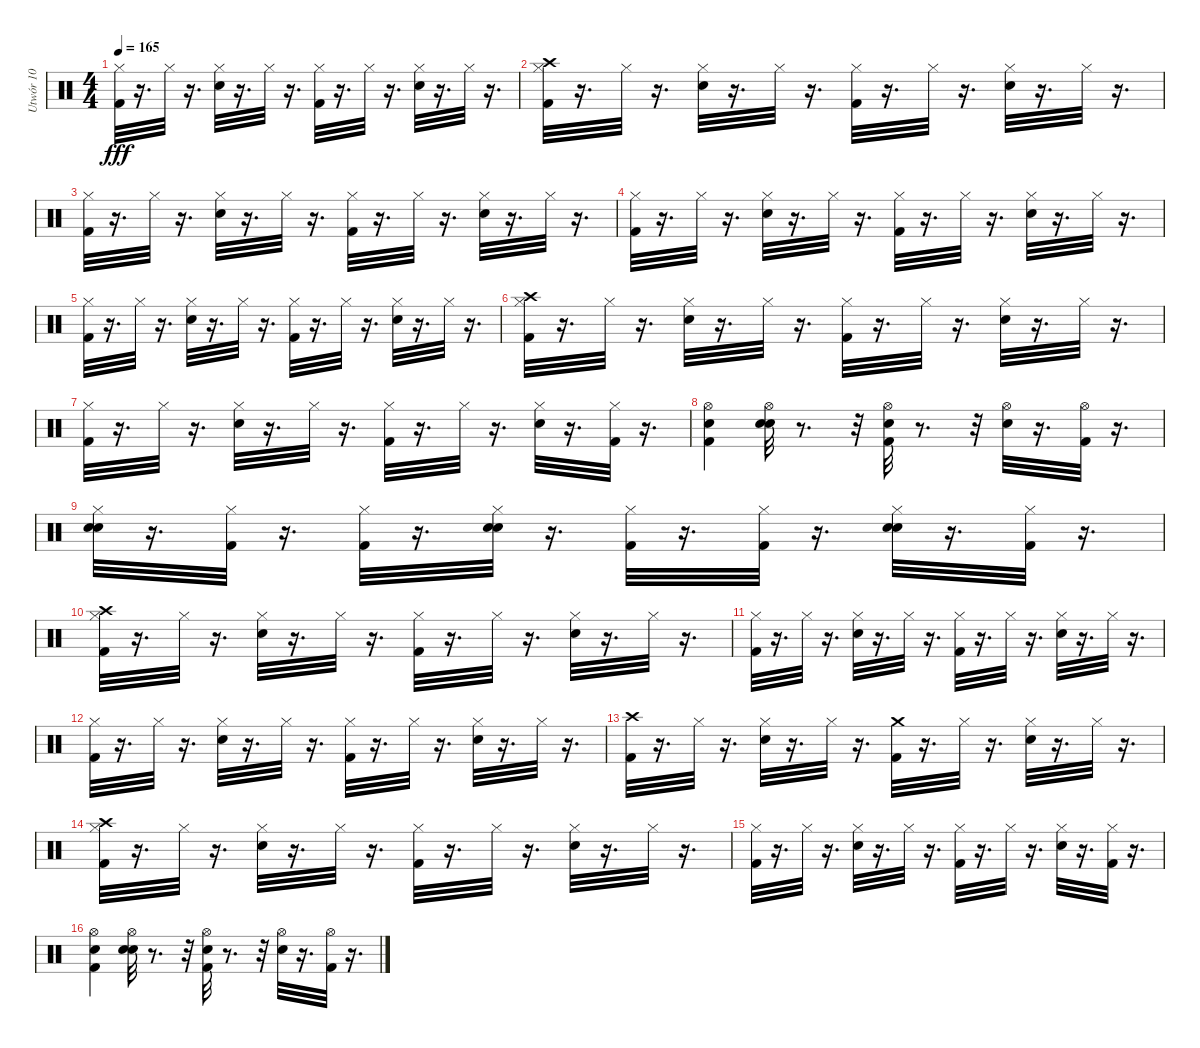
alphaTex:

\track ("Utwór 10" "Utwór 10") {instrument percussion}
\staff {score}
\articulation defaults
\ts (4 4)
\tempo 165
\clef neutral
\ks c
("Hi-Hat (closed)" "Kick (hit) 2").32{dy fff} r.16{d} "Hi-Hat (closed)".32 r.16{d} ("Hi-Hat (closed)" "Electric Snare (hit)").32 r.16{d} "Hi-Hat (closed)".32 r.16{d} ("Hi-Hat (closed)" "Kick (hit) 2").32 r.16{d} "Hi-Hat (closed)".32 r.16{d} ("Hi-Hat (closed)" "Electric Snare (hit)").32 r.16{d} "Hi-Hat (closed)".32 r.16{d} |
("Crash high (hit)" "Hi-Hat (closed)" "Kick (hit) 2").32 r.16{d} "Hi-Hat (closed)".32 r.16{d} ("Hi-Hat (closed)" "Electric Snare (hit)").32 r.16{d} "Hi-Hat (closed)".32 r.16{d} ("Hi-Hat (closed)" "Kick (hit) 2").32 r.16{d} "Hi-Hat (closed)".32 r.16{d} ("Hi-Hat (closed)" "Electric Snare (hit)").32 r.16{d} "Hi-Hat (closed)".32 r.16{d} |
("Hi-Hat (closed)" "Kick (hit) 2").32 r.16{d} "Hi-Hat (closed)".32 r.16{d} ("Hi-Hat (closed)" "Electric Snare (hit)").32 r.16{d} "Hi-Hat (closed)".32 r.16{d} ("Hi-Hat (closed)" "Kick (hit) 2").32 r.16{d} "Hi-Hat (closed)".32 r.16{d} ("Hi-Hat (closed)" "Electric Snare (hit)").32 r.16{d} "Hi-Hat (closed)".32 r.16{d} |
("Hi-Hat (closed)" "Kick (hit) 2").32 r.16{d} "Hi-Hat (closed)".32 r.16{d} ("Hi-Hat (closed)" "Electric Snare (hit)").32 r.16{d} "Hi-Hat (closed)".32 r.16{d} ("Hi-Hat (closed)" "Kick (hit) 2").32 r.16{d} "Hi-Hat (closed)".32 r.16{d} ("Hi-Hat (closed)" "Electric Snare (hit)").32 r.16{d} "Hi-Hat (closed)".32 r.16{d} |
("Hi-Hat (closed)" "Kick (hit) 2").32 r.16{d} "Hi-Hat (closed)".32 r.16{d} ("Hi-Hat (closed)" "Electric Snare (hit)").32 r.16{d} "Hi-Hat (closed)".32 r.16{d} ("Hi-Hat (closed)" "Kick (hit) 2").32 r.16{d} "Hi-Hat (closed)".32 r.16{d} ("Hi-Hat (closed)" "Electric Snare (hit)").32 r.16{d} "Hi-Hat (closed)".32 r.16{d} |
("Crash high (hit)" "Hi-Hat (closed)" "Kick (hit) 2").32 r.16{d} "Hi-Hat (closed)".32 r.16{d} ("Hi-Hat (closed)" "Electric Snare (hit)").32 r.16{d} "Hi-Hat (closed)".32 r.16{d} ("Hi-Hat (closed)" "Kick (hit) 2").32 r.16{d} "Hi-Hat (closed)".32 r.16{d} ("Hi-Hat (closed)" "Electric Snare (hit)").32 r.16{d} "Hi-Hat (closed)".32 r.16{d} |
("Hi-Hat (closed)" "Kick (hit) 2").32 r.16{d} "Hi-Hat (closed)".32 r.16{d} ("Hi-Hat (closed)" "Electric Snare (hit)").32 r.16{d} "Hi-Hat (closed)".32 r.16{d} ("Hi-Hat (closed)" "Kick (hit) 2").32 r.16{d} "Hi-Hat (closed)".32 r.16{d} ("Hi-Hat (closed)" "Electric Snare (hit)").32 r.16{d} ("Kick (hit) 2" "Hi-Hat (closed)").32 r.16{d} |
("Electric Snare (hit)" "Hi-Hat (open)" "Kick (hit) 2").4 ("Electric Snare (hit)" "Hi-Hat (open)" "Electric Snare (hit)").32 r.8{d} r.32 ("Electric Snare (hit)" "Hi-Hat (open)" "Kick (hit) 2").32 r.8{d} r.32 ("Hi-Hat (open)" "Electric Snare (hit)").32 r.16{d} ("Kick (hit) 2" "Hi-Hat (open)").32 r.16{d} |
("Electric Snare (hit)" "Hi-Hat (closed)" "Electric Snare (hit)").32 r.16{d} ("Kick (hit) 2" "Hi-Hat (closed)").32 r.16{d} ("Hi-Hat (closed)" "Kick (hit) 2").32 r.16{d} ("Electric Snare (hit)" "Electric Snare (hit)" "Hi-Hat (closed)").32 r.16{d} ("Hi-Hat (closed)" "Kick (hit) 2").32 r.16{d} ("Hi-Hat (closed)" "Kick (hit) 2").32 r.16{d} ("Electric Snare (hit)" "Hi-Hat (closed)" "Electric Snare (hit)").32 r.16{d} ("Kick (hit) 2" "Hi-Hat (closed)").32 r.16{d} |
("Kick (hit) 2" "Hi-Hat (closed)" "Crash high (hit)").32 r.16{d} "Hi-Hat (closed)".32 r.16{d} ("Hi-Hat (closed)" "Electric Snare (hit)").32 r.16{d} "Hi-Hat (closed)".32 r.16{d} ("Hi-Hat (closed)" "Kick (hit) 2").32 r.16{d} "Hi-Hat (closed)".32 r.16{d} ("Hi-Hat (closed)" "Electric Snare (hit)").32 r.16{d} "Hi-Hat (closed)".32 r.16{d} |
("Hi-Hat (closed)" "Kick (hit) 2").32 r.16{d} "Hi-Hat (closed)".32 r.16{d} ("Hi-Hat (closed)" "Electric Snare (hit)").32 r.16{d} "Hi-Hat (closed)".32 r.16{d} ("Hi-Hat (closed)" "Kick (hit) 2").32 r.16{d} "Hi-Hat (closed)".32 r.16{d} ("Hi-Hat (closed)" "Electric Snare (hit)").32 r.16{d} "Hi-Hat (closed)".32 r.16{d} |
("Hi-Hat (closed)" "Kick (hit) 2").32 r.16{d} "Hi-Hat (closed)".32 r.16{d} ("Hi-Hat (closed)" "Electric Snare (hit)").32 r.16{d} "Hi-Hat (closed)".32 r.16{d} ("Hi-Hat (closed)" "Kick (hit) 2").32 r.16{d} "Hi-Hat (closed)".32 r.16{d} ("Hi-Hat (closed)" "Electric Snare (hit)").32 r.16{d} "Hi-Hat (closed)".32 r.16{d} |
("Crash high (hit)" "Kick (hit) 2").32 r.16{d} "Hi-Hat (closed)".32 r.16{d} ("Hi-Hat (closed)" "Electric Snare (hit)").32 r.16{d} "Hi-Hat (closed)".32 r.16{d} ("Crash medium (hit)" "Kick (hit) 2").32 r.16{d} "Hi-Hat (closed)".32 r.16{d} ("Hi-Hat (closed)" "Electric Snare (hit)").32 r.16{d} "Hi-Hat (closed)".32 r.16{d} |
("Crash high (hit)" "Hi-Hat (closed)" "Kick (hit) 2").32 r.16{d} "Hi-Hat (closed)".32 r.16{d} ("Hi-Hat (closed)" "Electric Snare (hit)").32 r.16{d} "Hi-Hat (closed)".32 r.16{d} ("Hi-Hat (closed)" "Kick (hit) 2").32 r.16{d} "Hi-Hat (closed)".32 r.16{d} ("Hi-Hat (closed)" "Electric Snare (hit)").32 r.16{d} "Hi-Hat (closed)".32 r.16{d} |
("Hi-Hat (closed)" "Kick (hit) 2").32 r.16{d} "Hi-Hat (closed)".32 r.16{d} ("Hi-Hat (closed)" "Electric Snare (hit)").32 r.16{d} "Hi-Hat (closed)".32 r.16{d} ("Hi-Hat (closed)" "Kick (hit) 2").32 r.16{d} "Hi-Hat (closed)".32 r.16{d} ("Hi-Hat (closed)" "Electric Snare (hit)").32 r.16{d} ("Kick (hit) 2" "Hi-Hat (closed)").32 r.16{d} |
("Electric Snare (hit)" "Hi-Hat (open)" "Kick (hit) 2").4 ("Electric Snare (hit)" "Hi-Hat (open)" "Electric Snare (hit)").32 r.8{d} r.32 ("Electric Snare (hit)" "Hi-Hat (open)" "Kick (hit) 2").32 r.8{d} r.32 ("Hi-Hat (open)" "Electric Snare (hit)").32 r.16{d} ("Kick (hit) 2" "Hi-Hat (open)").32 r.16{d}
